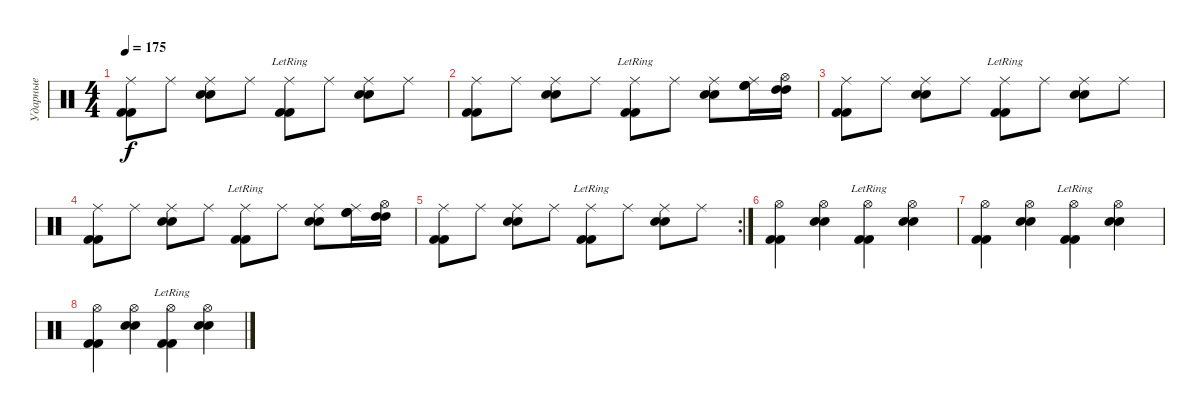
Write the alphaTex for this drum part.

\track ("Ударные" "Ударные") {instrument percussion}
\staff {score}
\articulation defaults
\ts (4 4)
\tempo 175
\clef neutral
\ks c
("Ride (middle)" "Kick (hit) 2" "Kick (hit) 2").8{dy f} "Ride (middle)".8 ("Ride (middle)" "Electric Snare (hit)" "Electric Snare (hit)").8 "Ride (middle)".8 ("Ride (middle)" "Kick (hit) 2"{lr} "Kick (hit) 2").8 "Ride (middle)".8 ("Ride (middle)" "Electric Snare (hit)" "Electric Snare (hit)").8 "Ride (middle)".8 |
("Ride (middle)" "Kick (hit) 2" "Kick (hit) 2").8 "Ride (middle)".8 ("Ride (middle)" "Electric Snare (hit)" "Electric Snare (hit)").8 "Ride (middle)".8 ("Ride (middle)" "Kick (hit) 2"{lr} "Kick (hit) 2").8 "Ride (middle)".8 ("Ride (middle)" "Electric Snare (hit)" "Electric Snare (hit)").8 ("Ride (middle)" "High Floor Tom (hit)" "High Floor Tom (hit)").16 ("Hi-Hat (open)" "High Tom (hit)" "High Tom (hit)").16 |
("Ride (middle)" "Kick (hit) 2" "Kick (hit) 2").8 "Ride (middle)".8 ("Ride (middle)" "Electric Snare (hit)" "Electric Snare (hit)").8 "Ride (middle)".8 ("Ride (middle)" "Kick (hit) 2"{lr} "Kick (hit) 2").8 "Ride (middle)".8 ("Ride (middle)" "Electric Snare (hit)" "Electric Snare (hit)").8 "Ride (middle)".8 |
("Ride (middle)" "Kick (hit) 2" "Kick (hit) 2").8 "Ride (middle)".8 ("Ride (middle)" "Electric Snare (hit)" "Electric Snare (hit)").8 "Ride (middle)".8 ("Ride (middle)" "Kick (hit) 2"{lr} "Kick (hit) 2").8 "Ride (middle)".8 ("Ride (middle)" "Electric Snare (hit)" "Electric Snare (hit)").8 ("Ride (middle)" "High Floor Tom (hit)" "High Floor Tom (hit)").16 ("Hi-Hat (open)" "High Tom (hit)" "High Tom (hit)").16 |
\rc 2
("Ride (middle)" "Kick (hit) 2" "Kick (hit) 2").8 "Ride (middle)".8 ("Ride (middle)" "Electric Snare (hit)" "Electric Snare (hit)").8 "Ride (middle)".8 ("Ride (middle)" "Kick (hit) 2"{lr} "Kick (hit) 2").8 "Ride (middle)".8 ("Ride (middle)" "Electric Snare (hit)" "Electric Snare (hit)").8 "Ride (middle)".8 |
("Hi-Hat (open)" "Kick (hit) 2" "Kick (hit) 2").4 ("Hi-Hat (open)" "Electric Snare (hit)" "Electric Snare (hit)").4 ("Hi-Hat (open)" "Kick (hit) 2"{lr} "Kick (hit) 2").4 ("Hi-Hat (open)" "Electric Snare (hit)" "Electric Snare (hit)").4 |
("Hi-Hat (open)" "Kick (hit) 2" "Kick (hit) 2").4 ("Hi-Hat (open)" "Electric Snare (hit)" "Electric Snare (hit)").4 ("Hi-Hat (open)" "Kick (hit) 2"{lr} "Kick (hit) 2").4 ("Hi-Hat (open)" "Electric Snare (hit)" "Electric Snare (hit)").4 |
("Hi-Hat (open)" "Kick (hit) 2" "Kick (hit) 2").4 ("Hi-Hat (open)" "Electric Snare (hit)" "Electric Snare (hit)").4 ("Hi-Hat (open)" "Kick (hit) 2"{lr} "Kick (hit) 2").4 ("Hi-Hat (open)" "Electric Snare (hit)" "Electric Snare (hit)").4
